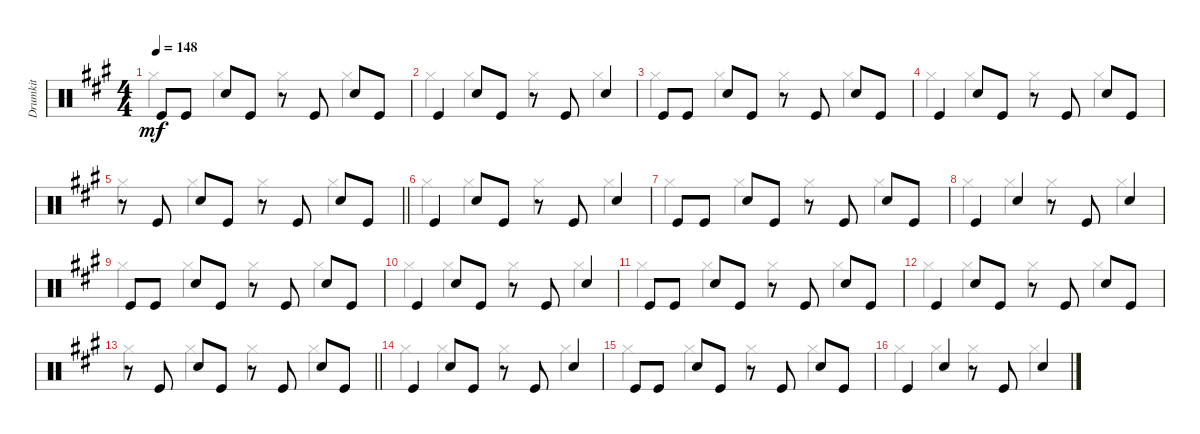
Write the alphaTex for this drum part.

\track ("Drumkit" "Drumkit") {instrument percussion}
\staff {score}
\articulation defaults
\voice
\ts (4 4)
\tempo 148
\clef neutral
\ks a "Kick (hit)".8{dy mf} "Kick (hit)".8 "Snare (hit) 2".8 "Kick (hit)".8
r.8 "Kick (hit)".8 "Snare (hit) 2".8 "Kick (hit)".8 |
"Kick (hit)".4 "Snare (hit) 2".8 "Kick (hit)".8 r.8 "Kick (hit)".8 "Snare (hit) 2".4 |
"Kick (hit)".8 "Kick (hit)".8 "Snare (hit) 2".8 "Kick (hit)".8 r.8 "Kick (hit)".8 "Snare (hit) 2".8 "Kick (hit)".8 |
"Kick (hit)".4 "Snare (hit) 2".8 "Kick (hit)".8 r.8 "Kick (hit)".8 "Snare (hit) 2".8 "Kick (hit)".8 |
\barLineRight lightlight
r.8 "Kick (hit)".8 "Snare (hit) 2".8 "Kick (hit)".8 r.8 "Kick (hit)".8 "Snare (hit) 2".8 "Kick (hit)".8 |
"Kick (hit)".4 "Snare (hit) 2".8 "Kick (hit)".8 r.8 "Kick (hit)".8 "Snare (hit) 2".4 |
"Kick (hit)".8 "Kick (hit)".8 "Snare (hit) 2".8 "Kick (hit)".8 r.8 "Kick (hit)".8 "Snare (hit) 2".8 "Kick (hit)".8 |
"Kick (hit)".4 "Snare (hit) 2".4 r.8 "Kick (hit)".8 "Snare (hit) 2".4 |
"Kick (hit)".8 "Kick (hit)".8 "Snare (hit) 2".8 "Kick (hit)".8 r.8 "Kick (hit)".8 "Snare (hit) 2".8 "Kick (hit)".8 |
"Kick (hit)".4 "Snare (hit) 2".8 "Kick (hit)".8 r.8 "Kick (hit)".8 "Snare (hit) 2".4 |
"Kick (hit)".8 "Kick (hit)".8 "Snare (hit) 2".8 "Kick (hit)".8 r.8 "Kick (hit)".8 "Snare (hit) 2".8 "Kick (hit)".8 |
"Kick (hit)".4 "Snare (hit) 2".8 "Kick (hit)".8 r.8 "Kick (hit)".8 "Snare (hit) 2".8 "Kick (hit)".8 |
\barLineRight lightlight
r.8 "Kick (hit)".8 "Snare (hit) 2".8 "Kick (hit)".8 r.8 "Kick (hit)".8 "Snare (hit) 2".8 "Kick (hit)".8 |
"Kick (hit)".4 "Snare (hit) 2".8 "Kick (hit)".8 r.8 "Kick (hit)".8 "Snare (hit) 2".4 |
"Kick (hit)".8 "Kick (hit)".8 "Snare (hit) 2".8 "Kick (hit)".8 r.8 "Kick (hit)".8 "Snare (hit) 2".8 "Kick (hit)".8 |
"Kick (hit)".4 "Snare (hit) 2".4 r.8 "Kick (hit)".8 "Snare (hit) 2".4
\voice
\clef neutral
\ottava regular
\simile none
\ks a "Hi-Hat (closed)".4{dy mf} "Hi-Hat (closed)".4 "Hi-Hat (closed)".4 "Hi-Hat (closed)".4
|
"Hi-Hat (closed)".4 "Hi-Hat (closed)".4 "Hi-Hat (closed)".4 "Hi-Hat (closed)".4 |
"Hi-Hat (closed)".4 "Hi-Hat (closed)".4 "Hi-Hat (closed)".4 "Hi-Hat (closed)".4 |
"Hi-Hat (closed)".4 "Hi-Hat (closed)".4 "Hi-Hat (closed)".4 "Hi-Hat (closed)".4 |
\barLineRight lightlight "Hi-Hat (closed)".4 "Hi-Hat (closed)".4 "Hi-Hat (closed)".4 "Hi-Hat (closed)".4
|
"Hi-Hat (closed)".4 "Hi-Hat (closed)".4 "Hi-Hat (closed)".4 "Hi-Hat (closed)".4 |
"Hi-Hat (closed)".4 "Hi-Hat (closed)".4 "Hi-Hat (closed)".4 "Hi-Hat (closed)".4 |
"Hi-Hat (closed)".4 "Hi-Hat (closed)".4 "Hi-Hat (closed)".4 "Hi-Hat (closed)".4 |
"Hi-Hat (closed)".4 "Hi-Hat (closed)".4 "Hi-Hat (closed)".4 "Hi-Hat (closed)".4 |
"Hi-Hat (closed)".4 "Hi-Hat (closed)".4 "Hi-Hat (closed)".4 "Hi-Hat (closed)".4 |
"Hi-Hat (closed)".4 "Hi-Hat (closed)".4 "Hi-Hat (closed)".4 "Hi-Hat (closed)".4 |
"Hi-Hat (closed)".4 "Hi-Hat (closed)".4 "Hi-Hat (closed)".4 "Hi-Hat (closed)".4 |
\barLineRight lightlight "Hi-Hat (closed)".4 "Hi-Hat (closed)".4 "Hi-Hat (closed)".4 "Hi-Hat (closed)".4
|
"Hi-Hat (closed)".4 "Hi-Hat (closed)".4 "Hi-Hat (closed)".4 "Hi-Hat (closed)".4 |
"Hi-Hat (closed)".4 "Hi-Hat (closed)".4 "Hi-Hat (closed)".4 "Hi-Hat (closed)".4 |
"Hi-Hat (closed)".4 "Hi-Hat (closed)".4 "Hi-Hat (closed)".4 "Hi-Hat (closed)".4
